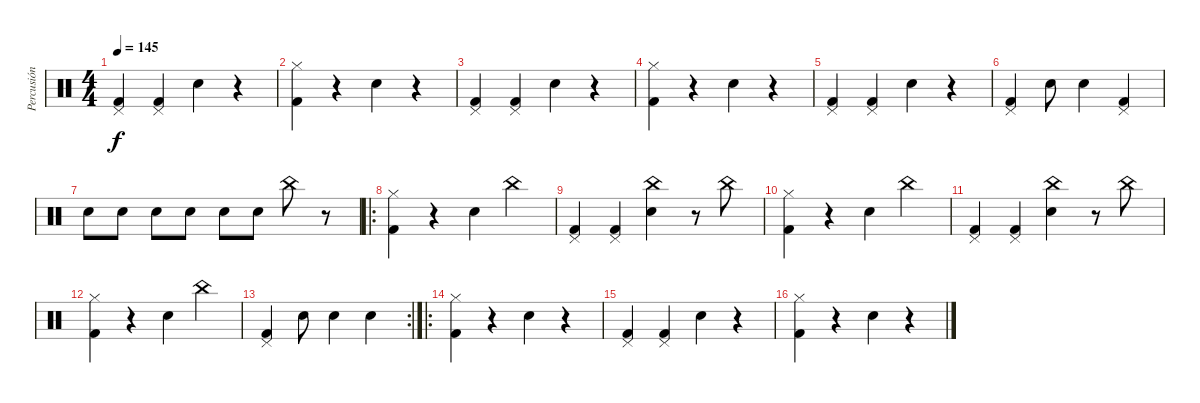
\track ("Percusión" "Percusión") {instrument percussion}
\staff {score}
\articulation defaults
\ts (4 4)
\tempo 145
\clef neutral
\ks c
("Pedal Hi-Hat (hit)" "Kick (hit) 2").4{dy f} ("Pedal Hi-Hat (hit)" "Kick (hit) 2").4 "Electric Snare (hit)".4 r.4 |
("Hi-Hat (closed)" "Kick (hit) 2").4 r.4 "Electric Snare (hit)".4 r.4 |
("Pedal Hi-Hat (hit)" "Kick (hit) 2").4 ("Pedal Hi-Hat (hit)" "Kick (hit) 2").4 "Electric Snare (hit)".4 r.4 |
("Hi-Hat (closed)" "Kick (hit) 2").4 r.4 "Electric Snare (hit)".4 r.4 |
("Pedal Hi-Hat (hit)" "Kick (hit) 2").4 ("Pedal Hi-Hat (hit)" "Kick (hit) 2").4 "Electric Snare (hit)".4 r.4 |
("Pedal Hi-Hat (hit)" "Kick (hit) 2").4 "Electric Snare (hit)".8 "Electric Snare (hit)".4 ("Pedal Hi-Hat (hit)" "Kick (hit) 2").4 |
"Electric Snare (hit)".8 "Electric Snare (hit)".8 "Electric Snare (hit)".8 "Electric Snare (hit)".8 "Electric Snare (hit)".8 "Electric Snare (hit)".8 "China (hit)".8 r.8 |
\ro
("Hi-Hat (closed)" "Kick (hit) 2").4 r.4 "Electric Snare (hit)".4 "China (hit)".4 |
("Pedal Hi-Hat (hit)" "Kick (hit) 2").4 ("Pedal Hi-Hat (hit)" "Kick (hit) 2").4 ("China (hit)" "Electric Snare (hit)").4 r.8 "China (hit)".8 |
("Hi-Hat (closed)" "Kick (hit) 2").4 r.4 "Electric Snare (hit)".4 "China (hit)".4 |
("Pedal Hi-Hat (hit)" "Kick (hit) 2").4 ("Pedal Hi-Hat (hit)" "Kick (hit) 2").4 ("China (hit)" "Electric Snare (hit)").4 r.8 "China (hit)".8 |
("Hi-Hat (closed)" "Kick (hit) 2").4 r.4 "Electric Snare (hit)".4 "China (hit)".4 |
\rc 2
("Pedal Hi-Hat (hit)" "Kick (hit) 2").4 "Electric Snare (hit)".8 "Electric Snare (hit)".4 "Electric Snare (hit)".4 |
\ro
("Hi-Hat (closed)" "Kick (hit) 2").4 r.4 "Electric Snare (hit)".4 r.4 |
("Pedal Hi-Hat (hit)" "Kick (hit) 2").4 ("Pedal Hi-Hat (hit)" "Kick (hit) 2").4 "Electric Snare (hit)".4 r.4 |
("Hi-Hat (closed)" "Kick (hit) 2").4 r.4 "Electric Snare (hit)".4 r.4
